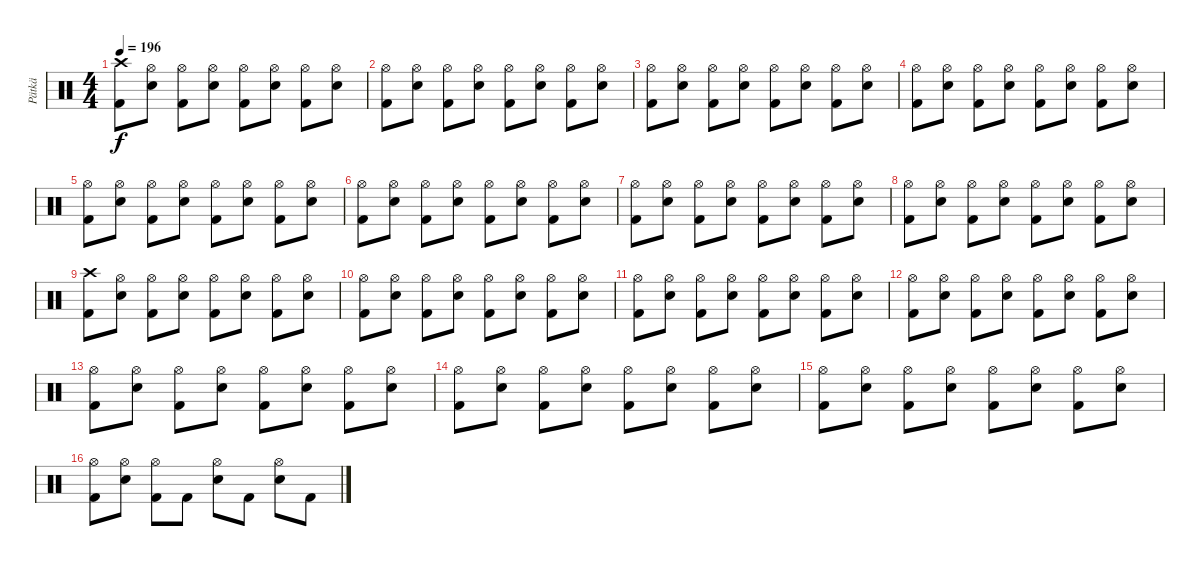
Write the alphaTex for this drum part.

\track ("Pätkä" "Pätkä") {instrument percussion}
\staff {score}
\articulation defaults
\ts (4 4)
\tempo 196
\clef neutral
\ks c
("Crash high (hit)" "Kick (hit) 2").8{dy f} ("Hi-Hat (open)" "Electric Snare (hit)").8 ("Hi-Hat (open)" "Kick (hit) 2").8 ("Hi-Hat (open)" "Electric Snare (hit)").8 ("Hi-Hat (open)" "Kick (hit) 2").8 ("Hi-Hat (open)" "Electric Snare (hit)").8 ("Hi-Hat (open)" "Kick (hit) 2").8 ("Hi-Hat (open)" "Electric Snare (hit)").8 |
("Hi-Hat (open)" "Kick (hit) 2").8 ("Hi-Hat (open)" "Electric Snare (hit)").8 ("Hi-Hat (open)" "Kick (hit) 2").8 ("Hi-Hat (open)" "Electric Snare (hit)").8 ("Hi-Hat (open)" "Kick (hit) 2").8 ("Hi-Hat (open)" "Electric Snare (hit)").8 ("Hi-Hat (open)" "Kick (hit) 2").8 ("Hi-Hat (open)" "Electric Snare (hit)").8 |
("Hi-Hat (open)" "Kick (hit) 2").8 ("Hi-Hat (open)" "Electric Snare (hit)").8 ("Hi-Hat (open)" "Kick (hit) 2").8 ("Hi-Hat (open)" "Electric Snare (hit)").8 ("Hi-Hat (open)" "Kick (hit) 2").8 ("Hi-Hat (open)" "Electric Snare (hit)").8 ("Hi-Hat (open)" "Kick (hit) 2").8 ("Hi-Hat (open)" "Electric Snare (hit)").8 |
("Hi-Hat (open)" "Kick (hit) 2").8 ("Hi-Hat (open)" "Electric Snare (hit)").8 ("Hi-Hat (open)" "Kick (hit) 2").8 ("Hi-Hat (open)" "Electric Snare (hit)").8 ("Hi-Hat (open)" "Kick (hit) 2").8 ("Hi-Hat (open)" "Electric Snare (hit)").8 ("Hi-Hat (open)" "Kick (hit) 2").8 ("Hi-Hat (open)" "Electric Snare (hit)").8 |
("Hi-Hat (open)" "Kick (hit) 2").8 ("Hi-Hat (open)" "Electric Snare (hit)").8 ("Hi-Hat (open)" "Kick (hit) 2").8 ("Hi-Hat (open)" "Electric Snare (hit)").8 ("Hi-Hat (open)" "Kick (hit) 2").8 ("Hi-Hat (open)" "Electric Snare (hit)").8 ("Hi-Hat (open)" "Kick (hit) 2").8 ("Hi-Hat (open)" "Electric Snare (hit)").8 |
("Hi-Hat (open)" "Kick (hit) 2").8 ("Hi-Hat (open)" "Electric Snare (hit)").8 ("Hi-Hat (open)" "Kick (hit) 2").8 ("Hi-Hat (open)" "Electric Snare (hit)").8 ("Hi-Hat (open)" "Kick (hit) 2").8 ("Hi-Hat (open)" "Electric Snare (hit)").8 ("Hi-Hat (open)" "Kick (hit) 2").8 ("Hi-Hat (open)" "Electric Snare (hit)").8 |
("Hi-Hat (open)" "Kick (hit) 2").8 ("Hi-Hat (open)" "Electric Snare (hit)").8 ("Hi-Hat (open)" "Kick (hit) 2").8 ("Hi-Hat (open)" "Electric Snare (hit)").8 ("Hi-Hat (open)" "Kick (hit) 2").8 ("Hi-Hat (open)" "Electric Snare (hit)").8 ("Hi-Hat (open)" "Kick (hit) 2").8 ("Hi-Hat (open)" "Electric Snare (hit)").8 |
("Hi-Hat (open)" "Kick (hit) 2").8 ("Hi-Hat (open)" "Electric Snare (hit)").8 ("Hi-Hat (open)" "Kick (hit) 2").8 ("Hi-Hat (open)" "Electric Snare (hit)").8 ("Hi-Hat (open)" "Kick (hit) 2").8 ("Hi-Hat (open)" "Electric Snare (hit)").8 ("Hi-Hat (open)" "Kick (hit) 2").8 ("Hi-Hat (open)" "Electric Snare (hit)").8 |
("Crash high (hit)" "Kick (hit) 2").8 ("Hi-Hat (open)" "Electric Snare (hit)").8 ("Hi-Hat (open)" "Kick (hit) 2").8 ("Hi-Hat (open)" "Electric Snare (hit)").8 ("Hi-Hat (open)" "Kick (hit) 2").8 ("Hi-Hat (open)" "Electric Snare (hit)").8 ("Hi-Hat (open)" "Kick (hit) 2").8 ("Hi-Hat (open)" "Electric Snare (hit)").8 |
("Hi-Hat (open)" "Kick (hit) 2").8 ("Hi-Hat (open)" "Electric Snare (hit)").8 ("Hi-Hat (open)" "Kick (hit) 2").8 ("Hi-Hat (open)" "Electric Snare (hit)").8 ("Hi-Hat (open)" "Kick (hit) 2").8 ("Hi-Hat (open)" "Electric Snare (hit)").8 ("Hi-Hat (open)" "Kick (hit) 2").8 ("Hi-Hat (open)" "Electric Snare (hit)").8 |
("Hi-Hat (open)" "Kick (hit) 2").8 ("Hi-Hat (open)" "Electric Snare (hit)").8 ("Hi-Hat (open)" "Kick (hit) 2").8 ("Hi-Hat (open)" "Electric Snare (hit)").8 ("Hi-Hat (open)" "Kick (hit) 2").8 ("Hi-Hat (open)" "Electric Snare (hit)").8 ("Hi-Hat (open)" "Kick (hit) 2").8 ("Hi-Hat (open)" "Electric Snare (hit)").8 |
("Hi-Hat (open)" "Kick (hit) 2").8 ("Hi-Hat (open)" "Electric Snare (hit)").8 ("Hi-Hat (open)" "Kick (hit) 2").8 ("Hi-Hat (open)" "Electric Snare (hit)").8 ("Hi-Hat (open)" "Kick (hit) 2").8 ("Hi-Hat (open)" "Electric Snare (hit)").8 ("Hi-Hat (open)" "Kick (hit) 2").8 ("Hi-Hat (open)" "Electric Snare (hit)").8 |
("Hi-Hat (open)" "Kick (hit) 2").8 ("Hi-Hat (open)" "Electric Snare (hit)").8 ("Hi-Hat (open)" "Kick (hit) 2").8 ("Hi-Hat (open)" "Electric Snare (hit)").8 ("Hi-Hat (open)" "Kick (hit) 2").8 ("Hi-Hat (open)" "Electric Snare (hit)").8 ("Hi-Hat (open)" "Kick (hit) 2").8 ("Hi-Hat (open)" "Electric Snare (hit)").8 |
("Hi-Hat (open)" "Kick (hit) 2").8 ("Hi-Hat (open)" "Electric Snare (hit)").8 ("Hi-Hat (open)" "Kick (hit) 2").8 ("Hi-Hat (open)" "Electric Snare (hit)").8 ("Hi-Hat (open)" "Kick (hit) 2").8 ("Hi-Hat (open)" "Electric Snare (hit)").8 ("Hi-Hat (open)" "Kick (hit) 2").8 ("Hi-Hat (open)" "Electric Snare (hit)").8 |
("Hi-Hat (open)" "Kick (hit) 2").8 ("Hi-Hat (open)" "Electric Snare (hit)").8 ("Hi-Hat (open)" "Kick (hit) 2").8 ("Hi-Hat (open)" "Electric Snare (hit)").8 ("Hi-Hat (open)" "Kick (hit) 2").8 ("Hi-Hat (open)" "Electric Snare (hit)").8 ("Hi-Hat (open)" "Kick (hit) 2").8 ("Hi-Hat (open)" "Electric Snare (hit)").8 |
("Hi-Hat (open)" "Kick (hit) 2").8 ("Hi-Hat (open)" "Electric Snare (hit)").8 ("Hi-Hat (open)" "Kick (hit) 2").8 "Kick (hit) 2".8 ("Hi-Hat (open)" "Electric Snare (hit)").8 "Kick (hit) 2".8 ("Hi-Hat (open)" "Electric Snare (hit)").8 "Kick (hit) 2".8
